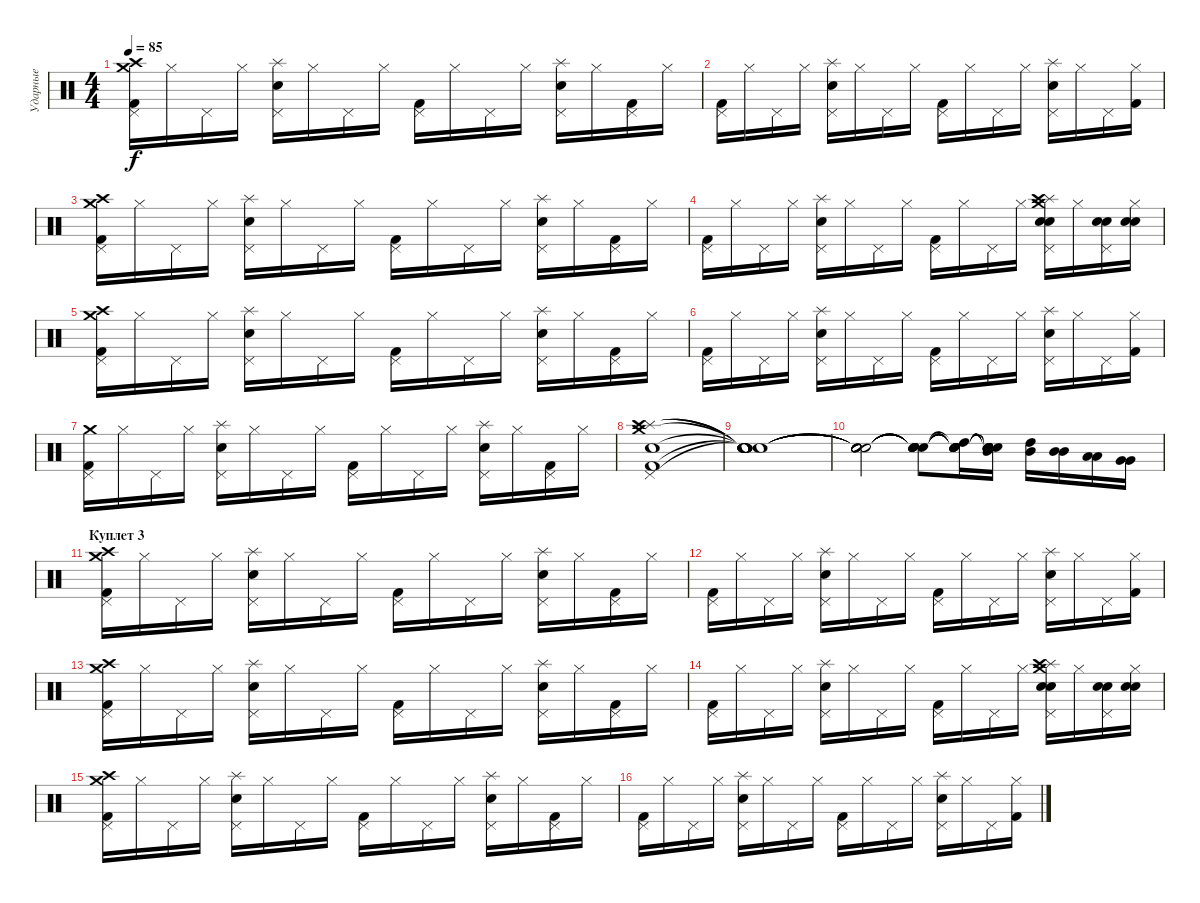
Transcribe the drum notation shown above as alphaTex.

\track ("Ударные" "Ударные") {instrument percussion}
\staff {score}
\articulation defaults
\ts (4 4)
\tempo 85
\clef neutral
\ks c
("Kick (hit) 2" "Pedal Hi-Hat (hit)" "Crash high (hit)" "Crash medium (hit)").16{dy f} "Hi-Hat (closed)".16 "Pedal Hi-Hat (hit)".16 "Hi-Hat (closed)".16 ("Snare (hit) 2" "Pedal Hi-Hat (hit)" "Splash (hit)").16 "Hi-Hat (closed)".16 "Pedal Hi-Hat (hit)".16 "Hi-Hat (closed)".16 ("Kick (hit) 2" "Pedal Hi-Hat (hit)").16 "Hi-Hat (closed)".16 "Pedal Hi-Hat (hit)".16 "Hi-Hat (closed)".16 ("Snare (hit) 2" "Pedal Hi-Hat (hit)" "Splash (hit)").16 "Hi-Hat (closed)".16 ("Kick (hit) 2" "Pedal Hi-Hat (hit)").16 "Hi-Hat (closed)".16 |
("Kick (hit) 2" "Pedal Hi-Hat (hit)").16 "Hi-Hat (closed)".16 "Pedal Hi-Hat (hit)".16 "Hi-Hat (closed)".16 ("Snare (hit) 2" "Pedal Hi-Hat (hit)" "Splash (hit)").16 "Hi-Hat (closed)".16 "Pedal Hi-Hat (hit)".16 "Hi-Hat (closed)".16 ("Kick (hit) 2" "Pedal Hi-Hat (hit)").16 "Hi-Hat (closed)".16 "Pedal Hi-Hat (hit)".16 "Hi-Hat (closed)".16 ("Snare (hit) 2" "Pedal Hi-Hat (hit)" "Splash (hit)").16 "Hi-Hat (closed)".16 "Pedal Hi-Hat (hit)".16 ("Kick (hit) 2" "Hi-Hat (closed)").16 |
("Kick (hit) 2" "Pedal Hi-Hat (hit)" "Crash medium (hit)" "Crash high (hit)").16 "Hi-Hat (closed)".16 "Pedal Hi-Hat (hit)".16 "Hi-Hat (closed)".16 ("Snare (hit) 2" "Pedal Hi-Hat (hit)" "Splash (hit)").16 "Hi-Hat (closed)".16 "Pedal Hi-Hat (hit)".16 "Hi-Hat (closed)".16 ("Kick (hit) 2" "Pedal Hi-Hat (hit)").16 "Hi-Hat (closed)".16 "Pedal Hi-Hat (hit)".16 "Hi-Hat (closed)".16 ("Snare (hit) 2" "Pedal Hi-Hat (hit)" "Splash (hit)").16 "Hi-Hat (closed)".16 ("Kick (hit) 2" "Pedal Hi-Hat (hit)").16 "Hi-Hat (closed)".16 |
("Kick (hit) 2" "Pedal Hi-Hat (hit)").16 "Hi-Hat (closed)".16 "Pedal Hi-Hat (hit)".16 "Hi-Hat (closed)".16 ("Snare (hit) 2" "Pedal Hi-Hat (hit)" "Splash (hit)").16 "Hi-Hat (closed)".16 "Pedal Hi-Hat (hit)".16 "Hi-Hat (closed)".16 ("Kick (hit) 2" "Pedal Hi-Hat (hit)").16 "Hi-Hat (closed)".16 "Pedal Hi-Hat (hit)".16 "Hi-Hat (closed)".16 ("Snare (hit) 2" "Snare (hit) 2" "Pedal Hi-Hat (hit)" "Splash (hit)" "Crash medium (hit)" "Crash high (hit)").16 "Hi-Hat (closed)".16 ("Snare (hit) 2" "Snare (hit) 2" "Pedal Hi-Hat (hit)").16 ("Snare (hit) 2" "Snare (hit) 2" "Hi-Hat (closed)").16 |
("Kick (hit) 2" "Pedal Hi-Hat (hit)" "Crash medium (hit)" "Crash high (hit)").16 "Hi-Hat (closed)".16 "Pedal Hi-Hat (hit)".16 "Hi-Hat (closed)".16 ("Snare (hit) 2" "Pedal Hi-Hat (hit)" "Splash (hit)").16 "Hi-Hat (closed)".16 "Pedal Hi-Hat (hit)".16 "Hi-Hat (closed)".16 ("Kick (hit) 2" "Pedal Hi-Hat (hit)").16 "Hi-Hat (closed)".16 "Pedal Hi-Hat (hit)".16 "Hi-Hat (closed)".16 ("Snare (hit) 2" "Pedal Hi-Hat (hit)" "Splash (hit)").16 "Hi-Hat (closed)".16 ("Kick (hit) 2" "Pedal Hi-Hat (hit)").16 "Hi-Hat (closed)".16 |
("Kick (hit) 2" "Pedal Hi-Hat (hit)").16 "Hi-Hat (closed)".16 "Pedal Hi-Hat (hit)".16 "Hi-Hat (closed)".16 ("Snare (hit) 2" "Pedal Hi-Hat (hit)" "Splash (hit)").16 "Hi-Hat (closed)".16 "Pedal Hi-Hat (hit)".16 "Hi-Hat (closed)".16 ("Kick (hit) 2" "Pedal Hi-Hat (hit)").16 "Hi-Hat (closed)".16 "Pedal Hi-Hat (hit)".16 "Hi-Hat (closed)".16 ("Snare (hit) 2" "Pedal Hi-Hat (hit)" "Splash (hit)").16 "Hi-Hat (closed)".16 "Pedal Hi-Hat (hit)".16 ("Kick (hit) 2" "Hi-Hat (closed)").16 |
("Kick (hit) 2" "Pedal Hi-Hat (hit)" "Crash medium (hit)").16 "Hi-Hat (closed)".16 "Pedal Hi-Hat (hit)".16 "Hi-Hat (closed)".16 ("Snare (hit) 2" "Pedal Hi-Hat (hit)" "Splash (hit)").16 "Hi-Hat (closed)".16 "Pedal Hi-Hat (hit)".16 "Hi-Hat (closed)".16 ("Kick (hit) 2" "Pedal Hi-Hat (hit)").16 "Hi-Hat (closed)".16 "Pedal Hi-Hat (hit)".16 "Hi-Hat (closed)".16 ("Snare (hit) 2" "Pedal Hi-Hat (hit)" "Splash (hit)").16 "Hi-Hat (closed)".16 ("Kick (hit) 2" "Pedal Hi-Hat (hit)").16 "Hi-Hat (closed)".16 |
("Kick (hit) 2" "Snare (hit) 2" "Pedal Hi-Hat (hit)" "Splash (hit)" "Crash medium (hit)" "Crash high (hit)").1 |
("Snare (hit)"{t} "Snare (hit)"{t} "Snare (hit)"{t} "Snare (hit)"{t} "Snare (hit)"{t} "Snare (hit)"{t}).1 |
("Snare (hit)"{t} "Snare (hit)"{t} "Snare (hit)"{t} "Snare (hit)"{t} "Snare (hit)"{t} "Snare (hit)"{t}).2 ("Snare (hit)"{t} "Snare (hit)"{t} "Snare (hit)"{t} "Snare (hit)"{t} "Snare (hit)"{t} "Snare (hit)"{t}).8 ("Snare (hit)"{t} "Snare (hit)"{t} "Snare (hit)"{t} "Snare (hit)"{t} "High Tom (hit)"{t} "Snare (hit)"{t}).16 ("Snare (hit)"{t} "Snare (hit)"{t} "Snare (hit)"{t} "Snare (hit)"{t} "Mid Tom (hit)"{t} "Snare (hit)"{t}).16 ("Mid Tom (hit)" "High Tom (hit)").16 ("Mid Tom (hit)" "Mid Tom (hit)").16 ("Low Tom (hit)" "Low Tom (hit)").16 ("Very Low Tom (hit)" "Very Low Tom (hit)").16 |
\section ("" "Куплет 3")
("Kick (hit) 2" "Pedal Hi-Hat (hit)" "Crash medium (hit)" "Crash high (hit)").16 "Hi-Hat (closed)".16 "Pedal Hi-Hat (hit)".16 "Hi-Hat (closed)".16 ("Snare (hit) 2" "Pedal Hi-Hat (hit)" "Splash (hit)").16 "Hi-Hat (closed)".16 "Pedal Hi-Hat (hit)".16 "Hi-Hat (closed)".16 ("Kick (hit) 2" "Pedal Hi-Hat (hit)").16 "Hi-Hat (closed)".16 "Pedal Hi-Hat (hit)".16 "Hi-Hat (closed)".16 ("Snare (hit) 2" "Pedal Hi-Hat (hit)" "Splash (hit)").16 "Hi-Hat (closed)".16 ("Kick (hit) 2" "Pedal Hi-Hat (hit)").16 "Hi-Hat (closed)".16 |
("Kick (hit) 2" "Pedal Hi-Hat (hit)").16 "Hi-Hat (closed)".16 "Pedal Hi-Hat (hit)".16 "Hi-Hat (closed)".16 ("Snare (hit) 2" "Pedal Hi-Hat (hit)" "Splash (hit)").16 "Hi-Hat (closed)".16 "Pedal Hi-Hat (hit)".16 "Hi-Hat (closed)".16 ("Kick (hit) 2" "Pedal Hi-Hat (hit)").16 "Hi-Hat (closed)".16 "Pedal Hi-Hat (hit)".16 "Hi-Hat (closed)".16 ("Snare (hit) 2" "Pedal Hi-Hat (hit)" "Splash (hit)").16 "Hi-Hat (closed)".16 "Pedal Hi-Hat (hit)".16 ("Kick (hit) 2" "Hi-Hat (closed)").16 |
("Kick (hit) 2" "Pedal Hi-Hat (hit)" "Crash medium (hit)" "Crash high (hit)").16 "Hi-Hat (closed)".16 "Pedal Hi-Hat (hit)".16 "Hi-Hat (closed)".16 ("Snare (hit) 2" "Pedal Hi-Hat (hit)" "Splash (hit)").16 "Hi-Hat (closed)".16 "Pedal Hi-Hat (hit)".16 "Hi-Hat (closed)".16 ("Kick (hit) 2" "Pedal Hi-Hat (hit)").16 "Hi-Hat (closed)".16 "Pedal Hi-Hat (hit)".16 "Hi-Hat (closed)".16 ("Snare (hit) 2" "Pedal Hi-Hat (hit)" "Splash (hit)").16 "Hi-Hat (closed)".16 ("Kick (hit) 2" "Pedal Hi-Hat (hit)").16 "Hi-Hat (closed)".16 |
("Kick (hit) 2" "Pedal Hi-Hat (hit)").16 "Hi-Hat (closed)".16 "Pedal Hi-Hat (hit)".16 "Hi-Hat (closed)".16 ("Snare (hit) 2" "Pedal Hi-Hat (hit)" "Splash (hit)").16 "Hi-Hat (closed)".16 "Pedal Hi-Hat (hit)".16 "Hi-Hat (closed)".16 ("Kick (hit) 2" "Pedal Hi-Hat (hit)").16 "Hi-Hat (closed)".16 "Pedal Hi-Hat (hit)".16 "Hi-Hat (closed)".16 ("Snare (hit) 2" "Snare (hit) 2" "Pedal Hi-Hat (hit)" "Splash (hit)" "Crash medium (hit)" "Crash high (hit)").16 "Hi-Hat (closed)".16 ("Snare (hit) 2" "Snare (hit) 2" "Pedal Hi-Hat (hit)").16 ("Snare (hit) 2" "Snare (hit) 2" "Hi-Hat (closed)").16 |
("Kick (hit) 2" "Pedal Hi-Hat (hit)" "Crash medium (hit)" "Crash high (hit)").16 "Hi-Hat (closed)".16 "Pedal Hi-Hat (hit)".16 "Hi-Hat (closed)".16 ("Snare (hit) 2" "Pedal Hi-Hat (hit)" "Splash (hit)").16 "Hi-Hat (closed)".16 "Pedal Hi-Hat (hit)".16 "Hi-Hat (closed)".16 ("Kick (hit) 2" "Pedal Hi-Hat (hit)").16 "Hi-Hat (closed)".16 "Pedal Hi-Hat (hit)".16 "Hi-Hat (closed)".16 ("Snare (hit) 2" "Pedal Hi-Hat (hit)" "Splash (hit)").16 "Hi-Hat (closed)".16 ("Kick (hit) 2" "Pedal Hi-Hat (hit)").16 "Hi-Hat (closed)".16 |
("Kick (hit) 2" "Pedal Hi-Hat (hit)").16 "Hi-Hat (closed)".16 "Pedal Hi-Hat (hit)".16 "Hi-Hat (closed)".16 ("Snare (hit) 2" "Pedal Hi-Hat (hit)" "Splash (hit)").16 "Hi-Hat (closed)".16 "Pedal Hi-Hat (hit)".16 "Hi-Hat (closed)".16 ("Kick (hit) 2" "Pedal Hi-Hat (hit)").16 "Hi-Hat (closed)".16 "Pedal Hi-Hat (hit)".16 "Hi-Hat (closed)".16 ("Snare (hit) 2" "Pedal Hi-Hat (hit)" "Splash (hit)").16 "Hi-Hat (closed)".16 "Pedal Hi-Hat (hit)".16 ("Kick (hit) 2" "Hi-Hat (closed)").16
